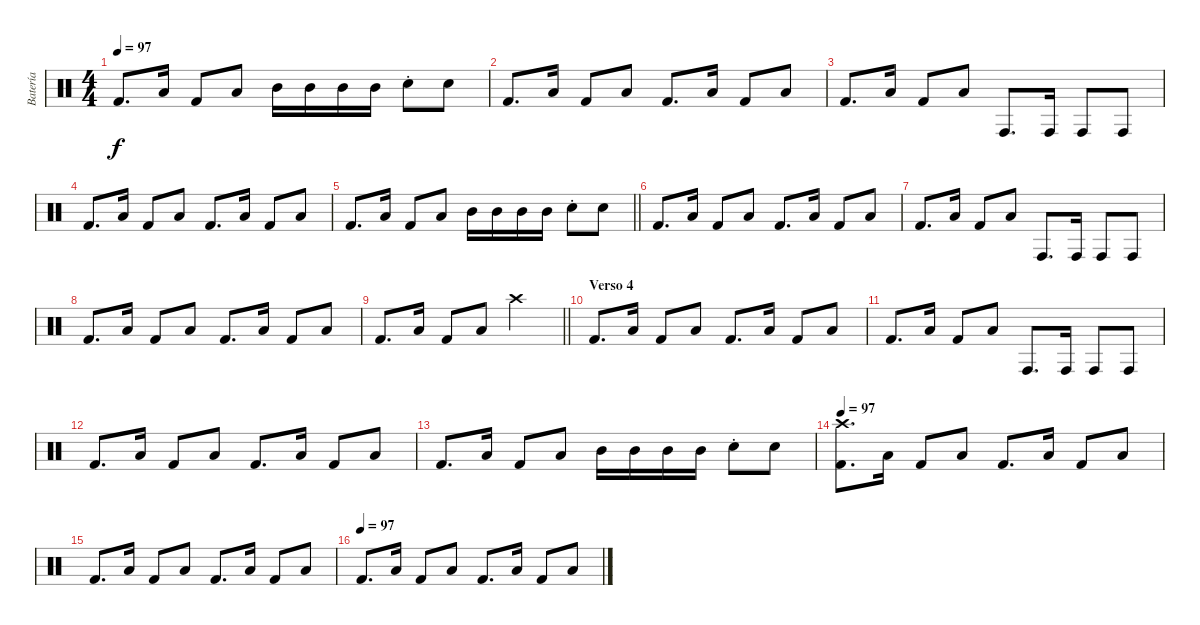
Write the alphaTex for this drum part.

\track ("Batería" "Batería") {instrument percussion}
\staff {score}
\articulation defaults
\ts (4 4)
\tempo 97
\clef neutral
\ks c "Kick (hit) 2".8{d dy f} "Low Tom (hit)".16 "Kick (hit) 2".8 "Low Tom (hit)".8 "Mid Tom (hit)".16 "Mid Tom (hit)".16 "Mid Tom (hit)".16 "Mid Tom (hit)".16 "Snare (hit) 2"{st}.8 "Snare (hit) 2".8
|
"Kick (hit) 2".8{d} "Low Tom (hit)".16 "Kick (hit) 2".8 "Low Tom (hit)".8 "Kick (hit) 2".8{d} "Low Tom (hit)".16 "Kick (hit) 2".8 "Low Tom (hit)".8 |
"Kick (hit) 2".8{d} "Low Tom (hit)".16 "Kick (hit) 2".8 "Low Tom (hit)".8 "Conga high (hit)".8{d} "Conga high (hit)".16 "Conga high (hit)".8 "Conga high (hit)".8 |
"Kick (hit) 2".8{d} "Low Tom (hit)".16 "Kick (hit) 2".8 "Low Tom (hit)".8 "Kick (hit) 2".8{d} "Low Tom (hit)".16 "Kick (hit) 2".8 "Low Tom (hit)".8 |
\barLineRight lightlight "Kick (hit) 2".8{d} "Low Tom (hit)".16 "Kick (hit) 2".8 "Low Tom (hit)".8 "Mid Tom (hit)".16 "Mid Tom (hit)".16 "Mid Tom (hit)".16 "Mid Tom (hit)".16 "Snare (hit) 2"{st}.8 "Snare (hit) 2".8
|
"Kick (hit) 2".8{d} "Low Tom (hit)".16 "Kick (hit) 2".8 "Low Tom (hit)".8 "Kick (hit) 2".8{d} "Low Tom (hit)".16 "Kick (hit) 2".8 "Low Tom (hit)".8 |
"Kick (hit) 2".8{d} "Low Tom (hit)".16 "Kick (hit) 2".8 "Low Tom (hit)".8 "Conga high (hit)".8{d} "Conga high (hit)".16 "Conga high (hit)".8 "Conga high (hit)".8 |
"Kick (hit) 2".8{d} "Low Tom (hit)".16 "Kick (hit) 2".8 "Low Tom (hit)".8 "Kick (hit) 2".8{d} "Low Tom (hit)".16 "Kick (hit) 2".8 "Low Tom (hit)".8 |
\barLineRight lightlight "Kick (hit) 2".8{d} "Low Tom (hit)".16 "Kick (hit) 2".8 "Low Tom (hit)".8 "Crash high (hit)".2
|
\section ("" "Verso 4")
"Kick (hit) 2".8{d} "Low Tom (hit)".16 "Kick (hit) 2".8 "Low Tom (hit)".8 "Kick (hit) 2".8{d} "Low Tom (hit)".16 "Kick (hit) 2".8 "Low Tom (hit)".8 |
"Kick (hit) 2".8{d} "Low Tom (hit)".16 "Kick (hit) 2".8 "Low Tom (hit)".8 "Conga high (hit)".8{d} "Conga high (hit)".16 "Conga high (hit)".8 "Conga high (hit)".8 |
"Kick (hit) 2".8{d} "Low Tom (hit)".16 "Kick (hit) 2".8 "Low Tom (hit)".8 "Kick (hit) 2".8{d} "Low Tom (hit)".16 "Kick (hit) 2".8 "Low Tom (hit)".8 |
"Kick (hit) 2".8{d} "Low Tom (hit)".16 "Kick (hit) 2".8 "Low Tom (hit)".8 "Mid Tom (hit)".16 "Mid Tom (hit)".16 "Mid Tom (hit)".16 "Mid Tom (hit)".16 "Snare (hit) 2"{st}.8 "Snare (hit) 2".8 |
\tempo 97
("Crash high (hit)" "Kick (hit) 2").8{d} "Low Tom (hit)".16 "Kick (hit) 2".8 "Low Tom (hit)".8 "Kick (hit) 2".8{d} "Low Tom (hit)".16 "Kick (hit) 2".8 "Low Tom (hit)".8 |
"Kick (hit) 2".8{d} "Low Tom (hit)".16 "Kick (hit) 2".8 "Low Tom (hit)".8 "Kick (hit) 2".8{d} "Low Tom (hit)".16 "Kick (hit) 2".8 "Low Tom (hit)".8 |
\tempo (97)
"Kick (hit) 2".8{d} "Low Tom (hit)".16 "Kick (hit) 2".8 "Low Tom (hit)".8 "Kick (hit) 2".8{d} "Low Tom (hit)".16 "Kick (hit) 2".8 "Low Tom (hit)".8
